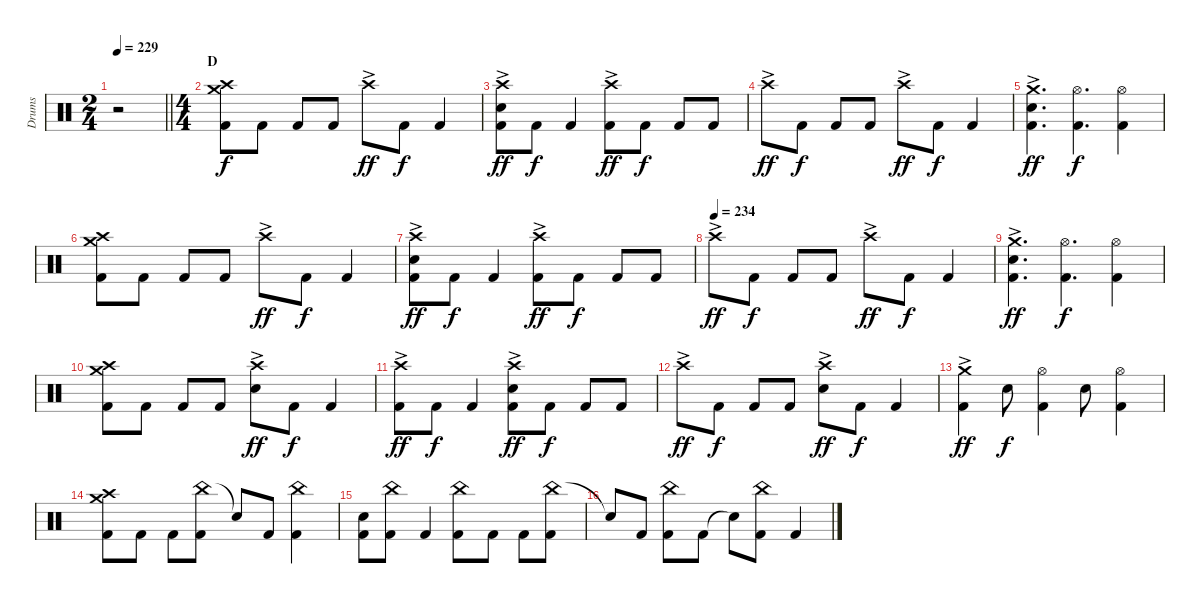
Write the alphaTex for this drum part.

\track ("Drums" "Drums") {instrument percussion}
\staff {score}
\articulation defaults
\ts (2 4)
\tempo 229
\clef neutral
\barLineRight lightlight
\ks c
r.2{dy ff volume 0} |
\ts (4 4)
\section ("" "D")
("Crash medium (hit)" "Crash high (hit)" "Kick (hit) 2").8{dy f volume 14} "Kick (hit) 2".8 "Kick (hit) 2".8 "Kick (hit) 2".8 "Crash high (hit)"{ac}.8{dy ff} "Kick (hit) 2".8{dy f} "Kick (hit) 2".4 |
("Crash high (hit)"{ac} "Electric Snare (hit)" "Kick (hit) 2").8{dy ff} "Kick (hit) 2".8{dy f} "Kick (hit) 2".4 ("Crash high (hit)"{ac} "Kick (hit) 2").8{dy ff} "Kick (hit) 2".8{dy f} "Kick (hit) 2".8 "Kick (hit) 2".8 |
"Crash high (hit)"{ac}.8{dy ff} "Kick (hit) 2".8{dy f} "Kick (hit) 2".8 "Kick (hit) 2".8 "Crash high (hit)"{ac}.8{dy ff} "Kick (hit) 2".8{dy f} "Kick (hit) 2".4 |
("Crash medium (hit)"{ac} "Electric Snare (hit)" "Kick (hit) 2").4{d dy ff} ("Hi-Hat (open)" "Kick (hit) 2").4{d dy f} ("Hi-Hat (open)" "Kick (hit) 2").4 |
("Crash medium (hit)" "Crash high (hit)" "Kick (hit) 2").8 "Kick (hit) 2".8 "Kick (hit) 2".8 "Kick (hit) 2".8 "Crash high (hit)"{ac}.8{dy ff} "Kick (hit) 2".8{dy f} "Kick (hit) 2".4 |
("Crash high (hit)"{ac} "Electric Snare (hit)" "Kick (hit) 2").8{dy ff} "Kick (hit) 2".8{dy f} "Kick (hit) 2".4 ("Crash high (hit)"{ac} "Kick (hit) 2").8{dy ff} "Kick (hit) 2".8{dy f} "Kick (hit) 2".8 "Kick (hit) 2".8 |
\tempo (234)
"Crash high (hit)"{ac}.8{dy ff} "Kick (hit) 2".8{dy f} "Kick (hit) 2".8 "Kick (hit) 2".8 "Crash high (hit)"{ac}.8{dy ff} "Kick (hit) 2".8{dy f} "Kick (hit) 2".4 |
("Crash medium (hit)"{ac} "Electric Snare (hit)" "Kick (hit) 2").4{d dy ff} ("Hi-Hat (open)" "Kick (hit) 2").4{d dy f} ("Hi-Hat (open)" "Kick (hit) 2").4 |
("Crash medium (hit)" "Crash high (hit)" "Kick (hit) 2").8 "Kick (hit) 2".8 "Kick (hit) 2".8 "Kick (hit) 2".8 ("Crash high (hit)"{ac} "Electric Snare (hit)").8{dy ff} "Kick (hit) 2".8{dy f} "Kick (hit) 2".4 |
("Crash high (hit)"{ac} "Kick (hit) 2").8{dy ff} "Kick (hit) 2".8{dy f} "Kick (hit) 2".4 ("Crash high (hit)"{ac} "Electric Snare (hit)" "Kick (hit) 2").8{dy ff} "Kick (hit) 2".8{dy f} "Kick (hit) 2".8 "Kick (hit) 2".8 |
"Crash high (hit)"{ac}.8{dy ff} "Kick (hit) 2".8{dy f} "Kick (hit) 2".8 "Kick (hit) 2".8 ("Crash high (hit)"{ac} "Electric Snare (hit)").8{dy ff} "Kick (hit) 2".8{dy f} "Kick (hit) 2".4 |
("Crash medium (hit)"{ac} "Kick (hit) 2").4{dy ff} "Electric Snare (hit)".8{dy f} ("Hi-Hat (open)" "Kick (hit) 2").4 "Electric Snare (hit)".8 ("Hi-Hat (open)" "Kick (hit) 2").4 |
("Crash medium (hit)" "Crash high (hit)" "Kick (hit) 2").8 "Kick (hit) 2".8 "Kick (hit) 2".8 ("China (hit)" "Kick (hit) 2").8 "Snare (hit)"{t}.8 "Kick (hit) 2".8 ("China (hit)" "Kick (hit) 2").4 |
("Electric Snare (hit)" "Kick (hit) 2").8 ("China (hit)" "Kick (hit) 2").8 "Kick (hit) 2".4 ("China (hit)" "Kick (hit) 2").8 "Kick (hit) 2".8 "Kick (hit) 2".8 ("China (hit)" "Kick (hit) 2").8 |
"Snare (hit)"{t}.8 "Kick (hit) 2".8 ("China (hit)" "Kick (hit) 2").8 "Kick (hit) 2".8 "Snare (hit)"{t}.8 ("China (hit)" "Kick (hit) 2").8 "Kick (hit) 2".4
